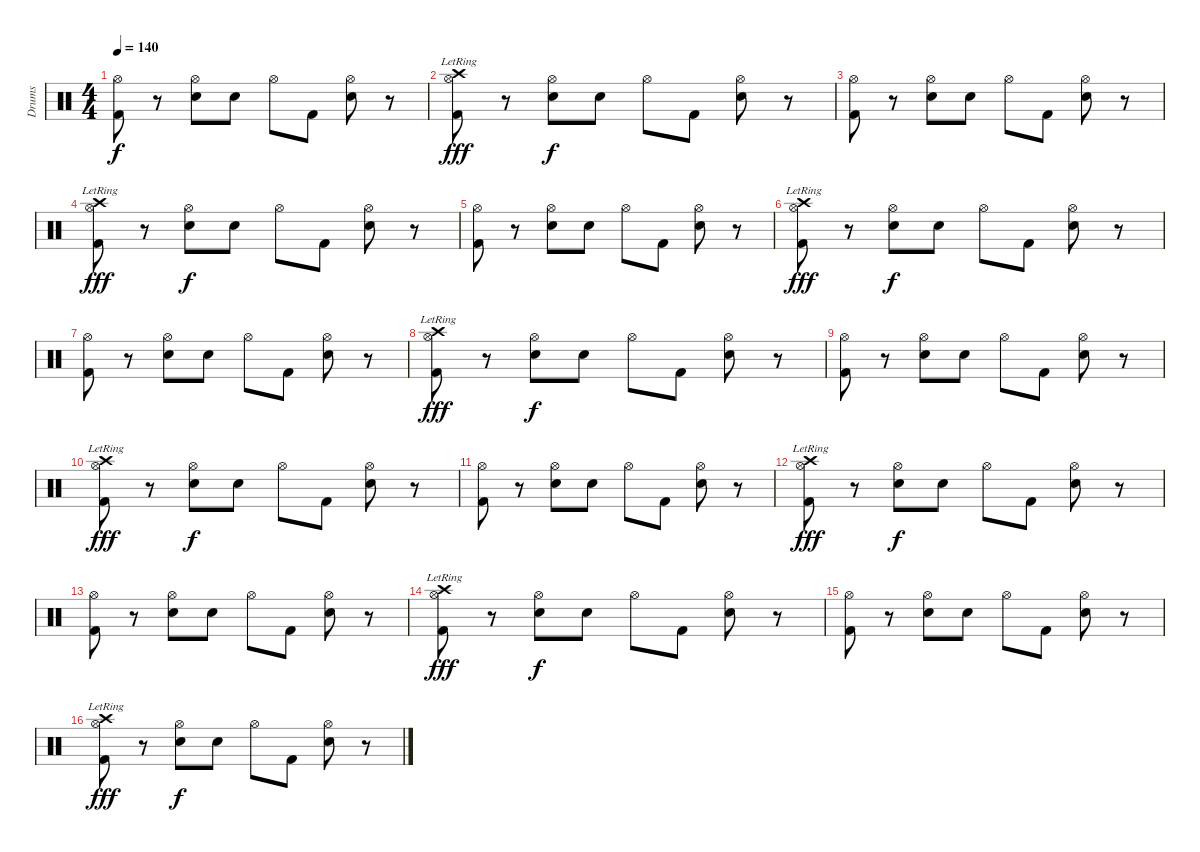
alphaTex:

\track ("Drums" "Drums") {instrument percussion}
\staff {score}
\articulation defaults
\ts (4 4)
\tempo 140
\clef neutral
\ks c
("Hi-Hat (open)" "Kick (hit) 2").8{dy f} r.8 ("Hi-Hat (open)" "Electric Snare (hit)").8 "Electric Snare (hit)".8 "Hi-Hat (open)".8 "Kick (hit) 2".8 ("Hi-Hat (open)" "Electric Snare (hit)").8 r.8 |
("Hi-Hat (open)" "Crash high (hit)"{lr} "Kick (hit) 2").8{dy fff} r.8 ("Hi-Hat (open)" "Electric Snare (hit)").8{dy f} "Electric Snare (hit)".8 "Hi-Hat (open)".8 "Kick (hit) 2".8 ("Hi-Hat (open)" "Electric Snare (hit)").8 r.8 |
("Hi-Hat (open)" "Kick (hit) 2").8 r.8 ("Hi-Hat (open)" "Electric Snare (hit)").8 "Electric Snare (hit)".8 "Hi-Hat (open)".8 "Kick (hit) 2".8 ("Hi-Hat (open)" "Electric Snare (hit)").8 r.8 |
("Hi-Hat (open)" "Crash high (hit)"{lr} "Kick (hit) 2").8{dy fff} r.8 ("Hi-Hat (open)" "Electric Snare (hit)").8{dy f} "Electric Snare (hit)".8 "Hi-Hat (open)".8 "Kick (hit) 2".8 ("Hi-Hat (open)" "Electric Snare (hit)").8 r.8 |
("Hi-Hat (open)" "Kick (hit) 2").8 r.8 ("Hi-Hat (open)" "Electric Snare (hit)").8 "Electric Snare (hit)".8 "Hi-Hat (open)".8 "Kick (hit) 2".8 ("Hi-Hat (open)" "Electric Snare (hit)").8 r.8 |
("Hi-Hat (open)" "Crash high (hit)"{lr} "Kick (hit) 2").8{dy fff} r.8 ("Hi-Hat (open)" "Electric Snare (hit)").8{dy f} "Electric Snare (hit)".8 "Hi-Hat (open)".8 "Kick (hit) 2".8 ("Hi-Hat (open)" "Electric Snare (hit)").8 r.8 |
("Hi-Hat (open)" "Kick (hit) 2").8 r.8 ("Hi-Hat (open)" "Electric Snare (hit)").8 "Electric Snare (hit)".8 "Hi-Hat (open)".8 "Kick (hit) 2".8 ("Hi-Hat (open)" "Electric Snare (hit)").8 r.8 |
("Hi-Hat (open)" "Crash high (hit)"{lr} "Kick (hit) 2").8{dy fff} r.8 ("Hi-Hat (open)" "Electric Snare (hit)").8{dy f} "Electric Snare (hit)".8 "Hi-Hat (open)".8 "Kick (hit) 2".8 ("Hi-Hat (open)" "Electric Snare (hit)").8 r.8 |
("Hi-Hat (open)" "Kick (hit) 2").8 r.8 ("Hi-Hat (open)" "Electric Snare (hit)").8 "Electric Snare (hit)".8 "Hi-Hat (open)".8 "Kick (hit) 2".8 ("Hi-Hat (open)" "Electric Snare (hit)").8 r.8 |
("Hi-Hat (open)" "Crash high (hit)"{lr} "Kick (hit) 2").8{dy fff} r.8 ("Hi-Hat (open)" "Electric Snare (hit)").8{dy f} "Electric Snare (hit)".8 "Hi-Hat (open)".8 "Kick (hit) 2".8 ("Hi-Hat (open)" "Electric Snare (hit)").8 r.8 |
("Hi-Hat (open)" "Kick (hit) 2").8 r.8 ("Hi-Hat (open)" "Electric Snare (hit)").8 "Electric Snare (hit)".8 "Hi-Hat (open)".8 "Kick (hit) 2".8 ("Hi-Hat (open)" "Electric Snare (hit)").8 r.8 |
("Hi-Hat (open)" "Crash high (hit)"{lr} "Kick (hit) 2").8{dy fff} r.8 ("Hi-Hat (open)" "Electric Snare (hit)").8{dy f} "Electric Snare (hit)".8 "Hi-Hat (open)".8 "Kick (hit) 2".8 ("Hi-Hat (open)" "Electric Snare (hit)").8 r.8 |
("Hi-Hat (open)" "Kick (hit) 2").8 r.8 ("Hi-Hat (open)" "Electric Snare (hit)").8 "Electric Snare (hit)".8 "Hi-Hat (open)".8 "Kick (hit) 2".8 ("Hi-Hat (open)" "Electric Snare (hit)").8 r.8 |
("Hi-Hat (open)" "Crash high (hit)"{lr} "Kick (hit) 2").8{dy fff} r.8 ("Hi-Hat (open)" "Electric Snare (hit)").8{dy f} "Electric Snare (hit)".8 "Hi-Hat (open)".8 "Kick (hit) 2".8 ("Hi-Hat (open)" "Electric Snare (hit)").8 r.8 |
("Hi-Hat (open)" "Kick (hit) 2").8 r.8 ("Hi-Hat (open)" "Electric Snare (hit)").8 "Electric Snare (hit)".8 "Hi-Hat (open)".8 "Kick (hit) 2".8 ("Hi-Hat (open)" "Electric Snare (hit)").8 r.8 |
("Hi-Hat (open)" "Crash high (hit)"{lr} "Kick (hit) 2").8{dy fff} r.8 ("Hi-Hat (open)" "Electric Snare (hit)").8{dy f} "Electric Snare (hit)".8 "Hi-Hat (open)".8 "Kick (hit) 2".8 ("Hi-Hat (open)" "Electric Snare (hit)").8 r.8
